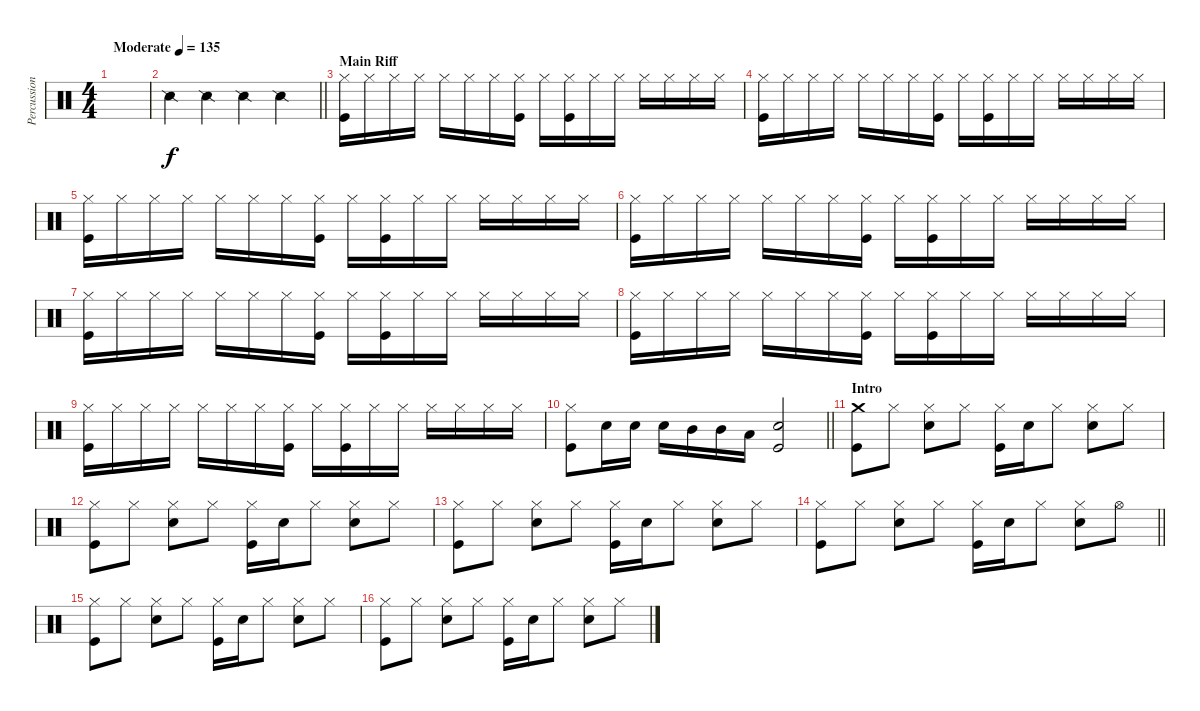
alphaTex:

\track ("Percussion" "Percussion") {instrument percussion}
\staff {score}
\articulation defaults
\ts (4 4)
\tempo (135 "Moderate")
\clef neutral
\ks c
|
\barLineRight lightlight "Snare (side stick) 2".4 "Snare (side stick) 2".4 "Snare (side stick) 2".4 "Snare (side stick) 2".4
|
\section ("" "Main Riff")
("Kick (hit)" "Hi-Hat (closed)").16 "Hi-Hat (closed)".16 "Hi-Hat (closed)".16 "Hi-Hat (closed)".16 "Hi-Hat (closed)".16 "Hi-Hat (closed)".16 "Hi-Hat (closed)".16 ("Kick (hit)" "Hi-Hat (closed)").16 "Hi-Hat (closed)".16 ("Kick (hit)" "Hi-Hat (closed)").16 "Hi-Hat (closed)".16 "Hi-Hat (closed)".16 "Hi-Hat (closed)".16 "Hi-Hat (closed)".16 "Hi-Hat (closed)".16 "Hi-Hat (closed)".16 |
("Kick (hit)" "Hi-Hat (closed)").16 "Hi-Hat (closed)".16 "Hi-Hat (closed)".16 "Hi-Hat (closed)".16 "Hi-Hat (closed)".16 "Hi-Hat (closed)".16 "Hi-Hat (closed)".16 ("Kick (hit)" "Hi-Hat (closed)").16 "Hi-Hat (closed)".16 ("Kick (hit)" "Hi-Hat (closed)").16 "Hi-Hat (closed)".16 "Hi-Hat (closed)".16 "Hi-Hat (closed)".16 "Hi-Hat (closed)".16 "Hi-Hat (closed)".16 "Hi-Hat (closed)".16 |
("Kick (hit)" "Hi-Hat (closed)").16 "Hi-Hat (closed)".16 "Hi-Hat (closed)".16 "Hi-Hat (closed)".16 "Hi-Hat (closed)".16 "Hi-Hat (closed)".16 "Hi-Hat (closed)".16 ("Kick (hit)" "Hi-Hat (closed)").16 "Hi-Hat (closed)".16 ("Kick (hit)" "Hi-Hat (closed)").16 "Hi-Hat (closed)".16 "Hi-Hat (closed)".16 "Hi-Hat (closed)".16 "Hi-Hat (closed)".16 "Hi-Hat (closed)".16 "Hi-Hat (closed)".16 |
("Kick (hit)" "Hi-Hat (closed)").16 "Hi-Hat (closed)".16 "Hi-Hat (closed)".16 "Hi-Hat (closed)".16 "Hi-Hat (closed)".16 "Hi-Hat (closed)".16 "Hi-Hat (closed)".16 ("Kick (hit)" "Hi-Hat (closed)").16 "Hi-Hat (closed)".16 ("Kick (hit)" "Hi-Hat (closed)").16 "Hi-Hat (closed)".16 "Hi-Hat (closed)".16 "Hi-Hat (closed)".16 "Hi-Hat (closed)".16 "Hi-Hat (closed)".16 "Hi-Hat (closed)".16 |
("Kick (hit)" "Hi-Hat (closed)").16 "Hi-Hat (closed)".16 "Hi-Hat (closed)".16 "Hi-Hat (closed)".16 "Hi-Hat (closed)".16 "Hi-Hat (closed)".16 "Hi-Hat (closed)".16 ("Kick (hit)" "Hi-Hat (closed)").16 "Hi-Hat (closed)".16 ("Kick (hit)" "Hi-Hat (closed)").16 "Hi-Hat (closed)".16 "Hi-Hat (closed)".16 "Hi-Hat (closed)".16 "Hi-Hat (closed)".16 "Hi-Hat (closed)".16 "Hi-Hat (closed)".16 |
("Kick (hit)" "Hi-Hat (closed)").16 "Hi-Hat (closed)".16 "Hi-Hat (closed)".16 "Hi-Hat (closed)".16 "Hi-Hat (closed)".16 "Hi-Hat (closed)".16 "Hi-Hat (closed)".16 ("Kick (hit)" "Hi-Hat (closed)").16 "Hi-Hat (closed)".16 ("Kick (hit)" "Hi-Hat (closed)").16 "Hi-Hat (closed)".16 "Hi-Hat (closed)".16 "Hi-Hat (closed)".16 "Hi-Hat (closed)".16 "Hi-Hat (closed)".16 "Hi-Hat (closed)".16 |
("Kick (hit)" "Hi-Hat (closed)").16 "Hi-Hat (closed)".16 "Hi-Hat (closed)".16 "Hi-Hat (closed)".16 "Hi-Hat (closed)".16 "Hi-Hat (closed)".16 "Hi-Hat (closed)".16 ("Kick (hit)" "Hi-Hat (closed)").16 "Hi-Hat (closed)".16 ("Kick (hit)" "Hi-Hat (closed)").16 "Hi-Hat (closed)".16 "Hi-Hat (closed)".16 "Hi-Hat (closed)".16 "Hi-Hat (closed)".16 "Hi-Hat (closed)".16 "Hi-Hat (closed)".16 |
\barLineRight lightlight
("Kick (hit)" "Hi-Hat (closed)").8 "Snare (hit) 2".16 "Snare (hit) 2".16 "Snare (hit) 2".16 "Mid Tom (hit)".16 "Mid Tom (hit)".16 "Low Tom (hit)".16 ("Kick (hit)" "Snare (hit) 2").2 |
\section ("" "Intro")
("Kick (hit)" "Crash medium (hit)").8 "Hi-Hat (closed)".8 ("Hi-Hat (closed)" "Snare (hit) 2").8 "Hi-Hat (closed)".8 ("Kick (hit)" "Hi-Hat (closed)").16 "Snare (hit) 2".16 "Hi-Hat (closed)".8 ("Hi-Hat (closed)" "Snare (hit) 2").8 "Hi-Hat (closed)".8 |
("Kick (hit)" "Hi-Hat (closed)").8 "Hi-Hat (closed)".8 ("Hi-Hat (closed)" "Snare (hit) 2").8 "Hi-Hat (closed)".8 ("Kick (hit)" "Hi-Hat (closed)").16 "Snare (hit) 2".16 "Hi-Hat (closed)".8 ("Hi-Hat (closed)" "Snare (hit) 2").8 "Hi-Hat (closed)".8 |
("Kick (hit)" "Hi-Hat (closed)").8 "Hi-Hat (closed)".8 ("Hi-Hat (closed)" "Snare (hit) 2").8 "Hi-Hat (closed)".8 ("Kick (hit)" "Hi-Hat (closed)").16 "Snare (hit) 2".16 "Hi-Hat (closed)".8 ("Hi-Hat (closed)" "Snare (hit) 2").8 "Hi-Hat (closed)".8 |
\barLineRight lightlight
("Kick (hit)" "Hi-Hat (closed)").8 "Hi-Hat (closed)".8 ("Hi-Hat (closed)" "Snare (hit) 2").8 "Hi-Hat (closed)".8 ("Kick (hit)" "Hi-Hat (closed)").16 "Snare (hit) 2".16 "Hi-Hat (closed)".8 ("Hi-Hat (closed)" "Snare (hit) 2").8 "Hi-Hat (open)".8 |
("Kick (hit)" "Hi-Hat (closed)").8 "Hi-Hat (closed)".8 ("Hi-Hat (closed)" "Snare (hit) 2").8 "Hi-Hat (closed)".8 ("Kick (hit)" "Hi-Hat (closed)").16 "Snare (hit) 2".16 "Hi-Hat (closed)".8 ("Hi-Hat (closed)" "Snare (hit) 2").8 "Hi-Hat (closed)".8 |
("Kick (hit)" "Hi-Hat (closed)").8 "Hi-Hat (closed)".8 ("Hi-Hat (closed)" "Snare (hit) 2").8 "Hi-Hat (closed)".8 ("Kick (hit)" "Hi-Hat (closed)").16 "Snare (hit) 2".16 "Hi-Hat (closed)".8 ("Hi-Hat (closed)" "Snare (hit) 2").8 "Hi-Hat (closed)".8
